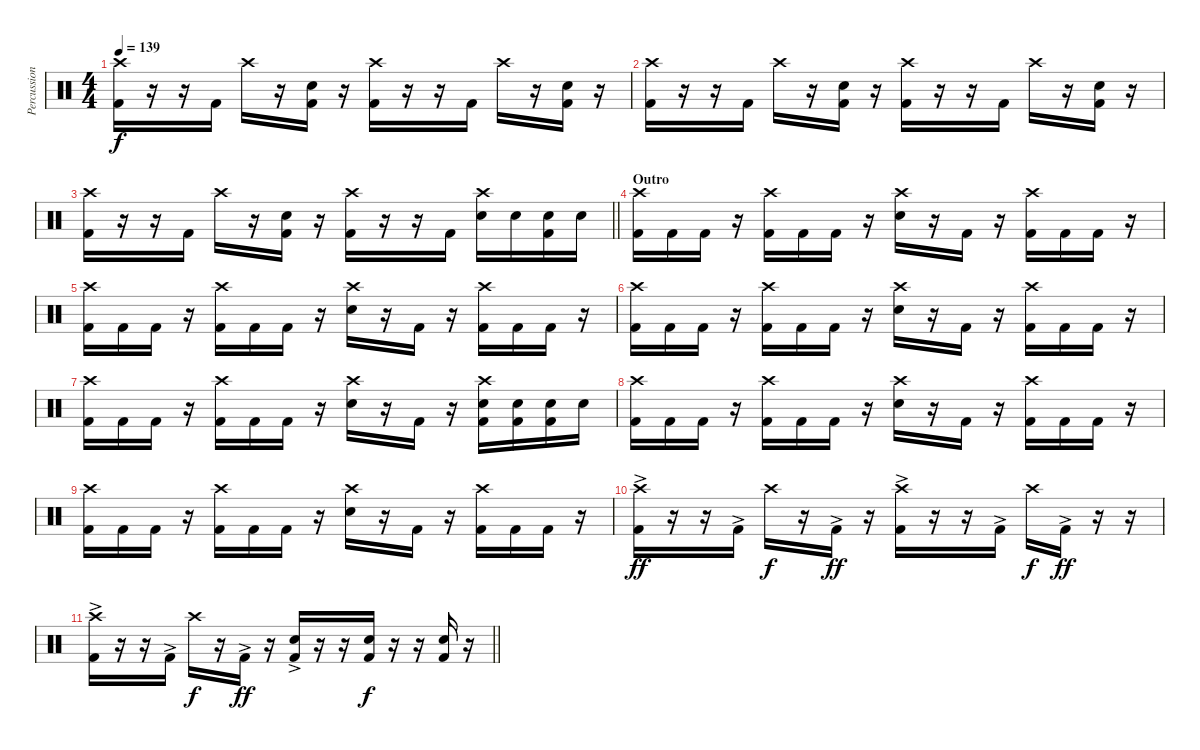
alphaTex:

\track ("Percussion" "Percussion") {instrument percussion}
\staff {score}
\articulation defaults
\ts (4 4)
\tempo 139
\clef neutral
\ks c
("Crash high (hit)" "Kick (hit) 2").16{dy f} r.16 r.16 "Kick (hit) 2".16 "Crash high (hit)".16 r.16 ("Snare (hit) 2" "Kick (hit) 2").16 r.16 ("Crash high (hit)" "Kick (hit) 2").16 r.16 r.16 "Kick (hit) 2".16 "Crash high (hit)".16 r.16 ("Snare (hit) 2" "Kick (hit) 2").16 r.16 |
("Crash high (hit)" "Kick (hit) 2").16 r.16 r.16 "Kick (hit) 2".16 "Crash high (hit)".16 r.16 ("Snare (hit) 2" "Kick (hit) 2").16 r.16 ("Crash high (hit)" "Kick (hit) 2").16 r.16 r.16 "Kick (hit) 2".16 "Crash high (hit)".16 r.16 ("Snare (hit) 2" "Kick (hit) 2").16 r.16 |
\barLineRight lightlight
("Crash high (hit)" "Kick (hit) 2").16 r.16 r.16 "Kick (hit) 2".16 "Crash high (hit)".16 r.16 ("Snare (hit) 2" "Kick (hit) 2").16 r.16 ("Crash high (hit)" "Kick (hit) 2").16 r.16 r.16 "Kick (hit) 2".16 ("Crash high (hit)" "Snare (hit) 2").16 "Snare (hit) 2".16 ("Snare (hit) 2" "Kick (hit) 2").16 "Snare (hit) 2".16 |
\section ("" "Outro")
("Crash high (hit)" "Kick (hit) 2").16 "Kick (hit) 2".16 "Kick (hit) 2".16 r.16 ("Crash high (hit)" "Kick (hit) 2").16 "Kick (hit) 2".16 "Kick (hit) 2".16 r.16 ("Crash high (hit)" "Snare (hit) 2").16 r.16 "Kick (hit) 2".16 r.16 ("Crash high (hit)" "Kick (hit) 2").16 "Kick (hit) 2".16 "Kick (hit) 2".16 r.16 |
("Crash high (hit)" "Kick (hit) 2").16 "Kick (hit) 2".16 "Kick (hit) 2".16 r.16 ("Crash high (hit)" "Kick (hit) 2").16 "Kick (hit) 2".16 "Kick (hit) 2".16 r.16 ("Crash high (hit)" "Snare (hit) 2").16 r.16 "Kick (hit) 2".16 r.16 ("Crash high (hit)" "Kick (hit) 2").16 "Kick (hit) 2".16 "Kick (hit) 2".16 r.16 |
("Crash high (hit)" "Kick (hit) 2").16 "Kick (hit) 2".16 "Kick (hit) 2".16 r.16 ("Crash high (hit)" "Kick (hit) 2").16 "Kick (hit) 2".16 "Kick (hit) 2".16 r.16 ("Crash high (hit)" "Snare (hit) 2").16 r.16 "Kick (hit) 2".16 r.16 ("Crash high (hit)" "Kick (hit) 2").16 "Kick (hit) 2".16 "Kick (hit) 2".16 r.16 |
("Crash high (hit)" "Kick (hit) 2").16 "Kick (hit) 2".16 "Kick (hit) 2".16 r.16 ("Crash high (hit)" "Kick (hit) 2").16 "Kick (hit) 2".16 "Kick (hit) 2".16 r.16 ("Crash high (hit)" "Snare (hit) 2").16 r.16 "Kick (hit) 2".16 r.16 ("Crash high (hit)" "Snare (hit) 2" "Kick (hit) 2").16 ("Snare (hit) 2" "Kick (hit) 2").16 ("Snare (hit) 2" "Kick (hit) 2").16 "Snare (hit) 2".16 |
("Crash high (hit)" "Kick (hit) 2").16 "Kick (hit) 2".16 "Kick (hit) 2".16 r.16 ("Crash high (hit)" "Kick (hit) 2").16 "Kick (hit) 2".16 "Kick (hit) 2".16 r.16 ("Crash high (hit)" "Snare (hit) 2").16 r.16 "Kick (hit) 2".16 r.16 ("Crash high (hit)" "Kick (hit) 2").16 "Kick (hit) 2".16 "Kick (hit) 2".16 r.16 |
("Crash high (hit)" "Kick (hit) 2").16 "Kick (hit) 2".16 "Kick (hit) 2".16 r.16 ("Crash high (hit)" "Kick (hit) 2").16 "Kick (hit) 2".16 "Kick (hit) 2".16 r.16 ("Crash high (hit)" "Snare (hit) 2").16 r.16 "Kick (hit) 2".16 r.16 ("Crash high (hit)" "Kick (hit) 2").16 "Kick (hit) 2".16 "Kick (hit) 2".16 r.16 |
("Crash high (hit)" "Kick (hit) 2"{ac}).16{dy ff} r.16 r.16 "Kick (hit) 2"{ac}.16 "Crash high (hit)".16{dy f} r.16 "Kick (hit) 2"{ac}.16{dy ff} r.16 ("Crash high (hit)" "Kick (hit) 2"{ac}).16 r.16 r.16 "Kick (hit) 2"{ac}.16 "Crash high (hit)".16{dy f} "Kick (hit) 2"{ac}.16{dy ff} r.16 r.16 |
\barLineRight lightlight
("Crash high (hit)" "Kick (hit) 2"{ac}).16 r.16 r.16 "Kick (hit) 2"{ac}.16 "Crash high (hit)".16{dy f} r.16 "Kick (hit) 2"{ac}.16{dy ff} r.16 ("Snare (hit) 2" "Kick (hit) 2"{ac}).16 r.16 r.16 ("Snare (hit) 2" "Kick (hit) 2").16{dy f} r.16 r.16 ("Snare (hit) 2" "Kick (hit) 2").16 r.16
